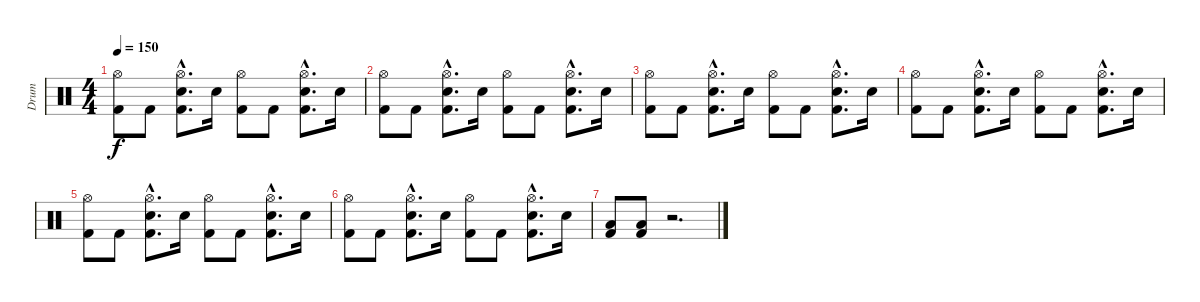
\track ("Drum" "Drum") {instrument percussion}
\staff {score}
\articulation defaults
\ts (4 4)
\tempo 150
\clef neutral
\ks c
("Hi-Hat (open)" "Kick (hit) 2").8{dy f} "Kick (hit) 2".8 ("Hi-Hat (open)"{hac} "Snare (hit) 2"{hac} "Kick (hit) 2"{hac}).8{d} "Snare (hit) 2".16 ("Hi-Hat (open)" "Kick (hit) 2").8 "Kick (hit) 2".8 ("Hi-Hat (open)"{hac} "Snare (hit) 2"{hac} "Kick (hit) 2"{hac}).8{d} "Snare (hit) 2".16 |
("Hi-Hat (open)" "Kick (hit) 2").8 "Kick (hit) 2".8 ("Hi-Hat (open)"{hac} "Snare (hit) 2"{hac} "Kick (hit) 2"{hac}).8{d} "Snare (hit) 2".16 ("Hi-Hat (open)" "Kick (hit) 2").8 "Kick (hit) 2".8 ("Hi-Hat (open)"{hac} "Snare (hit) 2"{hac} "Kick (hit) 2"{hac}).8{d} "Snare (hit) 2".16 |
("Hi-Hat (open)" "Kick (hit) 2").8 "Kick (hit) 2".8 ("Hi-Hat (open)"{hac} "Snare (hit) 2"{hac} "Kick (hit) 2"{hac}).8{d} "Snare (hit) 2".16 ("Hi-Hat (open)" "Kick (hit) 2").8 "Kick (hit) 2".8 ("Hi-Hat (open)"{hac} "Snare (hit) 2"{hac} "Kick (hit) 2"{hac}).8{d} "Snare (hit) 2".16 |
("Hi-Hat (open)" "Kick (hit) 2").8 "Kick (hit) 2".8 ("Hi-Hat (open)"{hac} "Snare (hit) 2"{hac} "Kick (hit) 2"{hac}).8{d} "Snare (hit) 2".16 ("Hi-Hat (open)" "Kick (hit) 2").8 "Kick (hit) 2".8 ("Hi-Hat (open)"{hac} "Snare (hit) 2"{hac} "Kick (hit) 2"{hac}).8{d} "Snare (hit) 2".16 |
("Hi-Hat (open)" "Kick (hit) 2").8 "Kick (hit) 2".8 ("Hi-Hat (open)"{hac} "Snare (hit) 2"{hac} "Kick (hit) 2"{hac}).8{d} "Snare (hit) 2".16 ("Hi-Hat (open)" "Kick (hit) 2").8 "Kick (hit) 2".8 ("Hi-Hat (open)"{hac} "Snare (hit) 2"{hac} "Kick (hit) 2"{hac}).8{d} "Snare (hit) 2".16 |
("Hi-Hat (open)" "Kick (hit) 2").8 "Kick (hit) 2".8 ("Hi-Hat (open)"{hac} "Snare (hit) 2"{hac} "Kick (hit) 2"{hac}).8{d} "Snare (hit) 2".16 ("Hi-Hat (open)" "Kick (hit) 2").8 "Kick (hit) 2".8 ("Hi-Hat (open)"{hac} "Snare (hit) 2"{hac} "Kick (hit) 2"{hac}).8{d} "Snare (hit) 2".16 |
("Low Floor Tom (hit)" "Kick (hit) 2").8 ("Low Floor Tom (hit)" "Kick (hit) 2").8 r.2{d}
